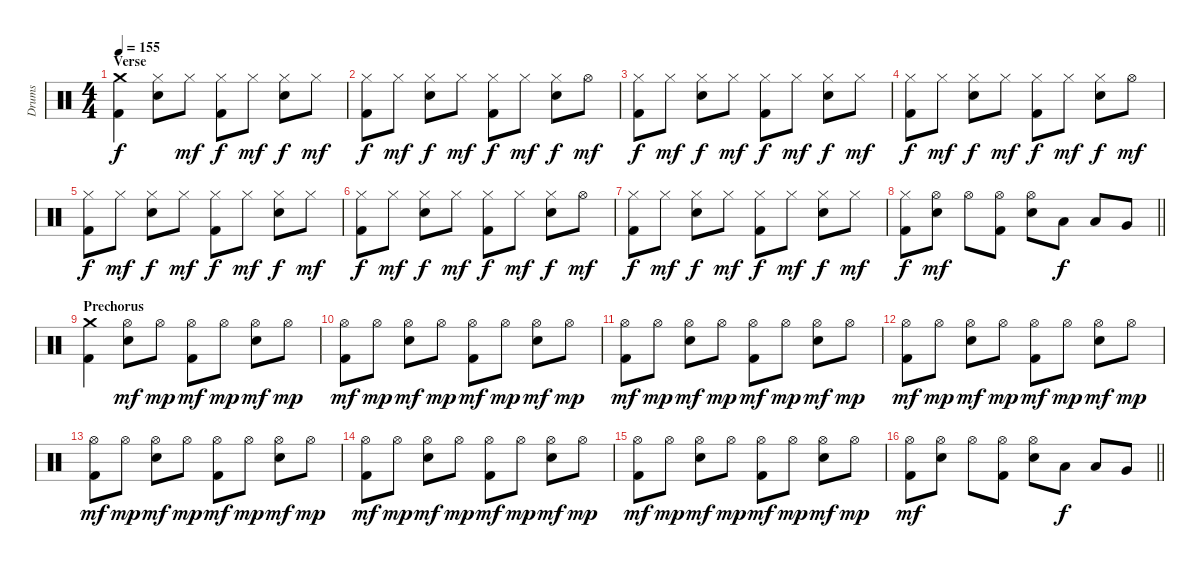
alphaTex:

\track ("Drums" "Drums") {instrument percussion}
\staff {score}
\articulation defaults
\ts (4 4)
\section ("" "Verse")
\tempo 155
\clef neutral
\ks c
("Kick (hit) 2" "Crash medium (hit)").4{dy f} ("Hi-Hat (closed)" "Electric Snare (hit)").8 "Hi-Hat (closed)".8{dy mf} ("Kick (hit) 2" "Hi-Hat (closed)").8{dy f} "Hi-Hat (closed)".8{dy mf} ("Hi-Hat (closed)" "Electric Snare (hit)").8{dy f} "Hi-Hat (closed)".8{dy mf} |
("Kick (hit) 2" "Hi-Hat (closed)").8{dy f} "Hi-Hat (closed)".8{dy mf} ("Hi-Hat (closed)" "Electric Snare (hit)").8{dy f} "Hi-Hat (closed)".8{dy mf} ("Kick (hit) 2" "Hi-Hat (closed)").8{dy f} "Hi-Hat (closed)".8{dy mf} ("Hi-Hat (closed)" "Electric Snare (hit)").8{dy f} "Hi-Hat (open)".8{dy mf} |
("Kick (hit) 2" "Hi-Hat (closed)").8{dy f} "Hi-Hat (closed)".8{dy mf} ("Hi-Hat (closed)" "Electric Snare (hit)").8{dy f} "Hi-Hat (closed)".8{dy mf} ("Kick (hit) 2" "Hi-Hat (closed)").8{dy f} "Hi-Hat (closed)".8{dy mf} ("Hi-Hat (closed)" "Electric Snare (hit)").8{dy f} "Hi-Hat (closed)".8{dy mf} |
("Kick (hit) 2" "Hi-Hat (closed)").8{dy f} "Hi-Hat (closed)".8{dy mf} ("Hi-Hat (closed)" "Electric Snare (hit)").8{dy f} "Hi-Hat (closed)".8{dy mf} ("Kick (hit) 2" "Hi-Hat (closed)").8{dy f} "Hi-Hat (closed)".8{dy mf} ("Hi-Hat (closed)" "Electric Snare (hit)").8{dy f} "Hi-Hat (open)".8{dy mf} |
("Kick (hit) 2" "Hi-Hat (closed)").8{dy f} "Hi-Hat (closed)".8{dy mf} ("Hi-Hat (closed)" "Electric Snare (hit)").8{dy f} "Hi-Hat (closed)".8{dy mf} ("Kick (hit) 2" "Hi-Hat (closed)").8{dy f} "Hi-Hat (closed)".8{dy mf} ("Hi-Hat (closed)" "Electric Snare (hit)").8{dy f} "Hi-Hat (closed)".8{dy mf} |
("Kick (hit) 2" "Hi-Hat (closed)").8{dy f} "Hi-Hat (closed)".8{dy mf} ("Hi-Hat (closed)" "Electric Snare (hit)").8{dy f} "Hi-Hat (closed)".8{dy mf} ("Kick (hit) 2" "Hi-Hat (closed)").8{dy f} "Hi-Hat (closed)".8{dy mf} ("Hi-Hat (closed)" "Electric Snare (hit)").8{dy f} "Hi-Hat (open)".8{dy mf} |
("Kick (hit) 2" "Hi-Hat (closed)").8{dy f} "Hi-Hat (closed)".8{dy mf} ("Hi-Hat (closed)" "Electric Snare (hit)").8{dy f} "Hi-Hat (closed)".8{dy mf} ("Kick (hit) 2" "Hi-Hat (closed)").8{dy f} "Hi-Hat (closed)".8{dy mf} ("Hi-Hat (closed)" "Electric Snare (hit)").8{dy f} "Hi-Hat (closed)".8{dy mf} |
\barLineRight lightlight
("Kick (hit) 2" "Hi-Hat (closed)").8{dy f} ("Hi-Hat (open)" "Electric Snare (hit)").8{dy mf} "Hi-Hat (open)".8 ("Kick (hit) 2" "Hi-Hat (open)").8 ("Hi-Hat (open)" "Electric Snare (hit)").8 "Low Tom (hit)".8{dy f} "Low Tom (hit)".8 "Very Low Tom (hit)".8 |
\section ("" "Prechorus")
("Kick (hit) 2" "Crash medium (hit)").4 ("Hi-Hat (open)" "Electric Snare (hit)").8{dy mf} "Hi-Hat (open)".8{dy mp} ("Kick (hit) 2" "Hi-Hat (open)").8{dy mf} "Hi-Hat (open)".8{dy mp} ("Hi-Hat (open)" "Electric Snare (hit)").8{dy mf} "Hi-Hat (open)".8{dy mp} |
("Kick (hit) 2" "Hi-Hat (open)").8{dy mf} "Hi-Hat (open)".8{dy mp} ("Hi-Hat (open)" "Electric Snare (hit)").8{dy mf} "Hi-Hat (open)".8{dy mp} ("Kick (hit) 2" "Hi-Hat (open)").8{dy mf} "Hi-Hat (open)".8{dy mp} ("Hi-Hat (open)" "Electric Snare (hit)").8{dy mf} "Hi-Hat (open)".8{dy mp} |
("Kick (hit) 2" "Hi-Hat (open)").8{dy mf} "Hi-Hat (open)".8{dy mp} ("Hi-Hat (open)" "Electric Snare (hit)").8{dy mf} "Hi-Hat (open)".8{dy mp} ("Kick (hit) 2" "Hi-Hat (open)").8{dy mf} "Hi-Hat (open)".8{dy mp} ("Hi-Hat (open)" "Electric Snare (hit)").8{dy mf} "Hi-Hat (open)".8{dy mp} |
("Kick (hit) 2" "Hi-Hat (open)").8{dy mf} "Hi-Hat (open)".8{dy mp} ("Hi-Hat (open)" "Electric Snare (hit)").8{dy mf} "Hi-Hat (open)".8{dy mp} ("Kick (hit) 2" "Hi-Hat (open)").8{dy mf} "Hi-Hat (open)".8{dy mp} ("Hi-Hat (open)" "Electric Snare (hit)").8{dy mf} "Hi-Hat (open)".8{dy mp} |
("Kick (hit) 2" "Hi-Hat (open)").8{dy mf} "Hi-Hat (open)".8{dy mp} ("Hi-Hat (open)" "Electric Snare (hit)").8{dy mf} "Hi-Hat (open)".8{dy mp} ("Kick (hit) 2" "Hi-Hat (open)").8{dy mf} "Hi-Hat (open)".8{dy mp} ("Hi-Hat (open)" "Electric Snare (hit)").8{dy mf} "Hi-Hat (open)".8{dy mp} |
("Kick (hit) 2" "Hi-Hat (open)").8{dy mf} "Hi-Hat (open)".8{dy mp} ("Hi-Hat (open)" "Electric Snare (hit)").8{dy mf} "Hi-Hat (open)".8{dy mp} ("Kick (hit) 2" "Hi-Hat (open)").8{dy mf} "Hi-Hat (open)".8{dy mp} ("Hi-Hat (open)" "Electric Snare (hit)").8{dy mf} "Hi-Hat (open)".8{dy mp} |
("Kick (hit) 2" "Hi-Hat (open)").8{dy mf} "Hi-Hat (open)".8{dy mp} ("Hi-Hat (open)" "Electric Snare (hit)").8{dy mf} "Hi-Hat (open)".8{dy mp} ("Kick (hit) 2" "Hi-Hat (open)").8{dy mf} "Hi-Hat (open)".8{dy mp} ("Hi-Hat (open)" "Electric Snare (hit)").8{dy mf} "Hi-Hat (open)".8{dy mp} |
\barLineRight lightlight
("Kick (hit) 2" "Hi-Hat (open)").8{dy mf} ("Hi-Hat (open)" "Electric Snare (hit)").8 "Hi-Hat (open)".8 ("Kick (hit) 2" "Hi-Hat (open)").8 ("Hi-Hat (open)" "Electric Snare (hit)").8 "Low Tom (hit)".8{dy f} "Low Tom (hit)".8 "Very Low Tom (hit)".8
